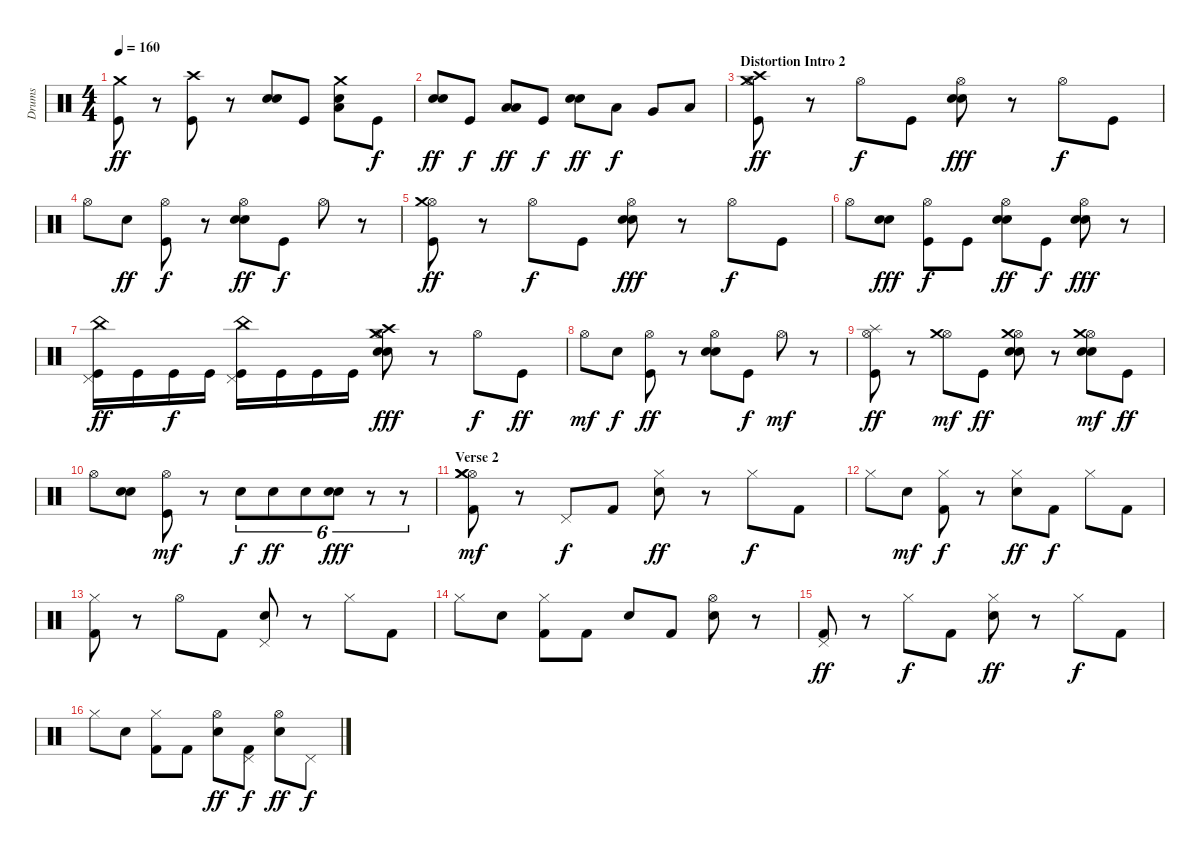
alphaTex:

\track ("Drums" "Drums") {instrument percussion}
\staff {score}
\articulation defaults
\ts (4 4)
\tempo 160
\clef neutral
\ks c
("Kick (hit)" "Crash medium (hit)").8{dy ff} r.8 ("Kick (hit)" "Crash high (hit)").8 r.8 ("Electric Snare (hit)" "Electric Snare (hit)").8 "Kick (hit)".8 ("Low Floor Tom (hit)" "Electric Snare (hit)" "Crash medium (hit)").8 "Kick (hit)".8{dy f} |
("Electric Snare (hit)" "Electric Snare (hit)").8{dy ff} "Kick (hit)".8{dy f} ("Low Floor Tom (hit)" "Low Floor Tom (hit)").8{dy ff} "Kick (hit)".8{dy f} ("Electric Snare (hit)" "Electric Snare (hit)").8{dy ff} "Low Tom (hit)".8{dy f} "Very Low Tom (hit)".8 "Low Floor Tom (hit)".8 |
\section ("" "Distortion Intro 2")
("Kick (hit)" "Hi-Hat (open)" "Crash high (hit)" "Crash medium (hit)").8{dy ff} r.8 "Hi-Hat (open)".8{dy f} "Kick (hit)".8 ("Electric Snare (hit)" "Electric Snare (hit)" "Hi-Hat (open)").8{dy fff} r.8 "Hi-Hat (open)".8{dy f} "Kick (hit)".8 |
"Hi-Hat (open)".8 "Electric Snare (hit)".8{dy ff} ("Kick (hit)" "Hi-Hat (open)").8{dy f} r.8 ("Electric Snare (hit)" "Electric Snare (hit)" "Hi-Hat (open)").8{dy ff} "Kick (hit)".8{dy f} "Hi-Hat (open)".8 r.8 |
("Kick (hit)" "Hi-Hat (open)" "Crash medium (hit)").8{dy ff} r.8 "Hi-Hat (open)".8{dy f} "Kick (hit)".8 ("Electric Snare (hit)" "Electric Snare (hit)" "Hi-Hat (open)").8{dy fff} r.8 "Hi-Hat (open)".8{dy f} "Kick (hit)".8 |
"Hi-Hat (open)".8 ("Electric Snare (hit)" "Electric Snare (hit)").8{dy fff} ("Kick (hit)" "Hi-Hat (open)").8{dy f} "Kick (hit)".8 ("Electric Snare (hit)" "Electric Snare (hit)" "Hi-Hat (open)").8{dy ff} "Kick (hit)".8{dy f} ("Electric Snare (hit)" "Electric Snare (hit)" "Hi-Hat (open)").8{dy fff} r.8 |
("Kick (hit)" "Pedal Hi-Hat (hit)" "China (hit)").16{dy ff} "Kick (hit)".16 "Kick (hit)".16{dy f} "Kick (hit)".16 ("Kick (hit)" "Pedal Hi-Hat (hit)" "China (hit)").16 "Kick (hit)".16 "Kick (hit)".16 "Kick (hit)".16 ("Electric Snare (hit)" "Electric Snare (hit)" "Hi-Hat (open)" "Crash high (hit)" "Crash medium (hit)").8{dy fff} r.8 "Hi-Hat (open)".8{dy f} "Kick (hit)".8{dy ff} |
"Hi-Hat (open)".8{dy mf} "Electric Snare (hit)".8{dy f} ("Kick (hit)" "Hi-Hat (open)").8{dy ff} r.8 ("Electric Snare (hit)" "Electric Snare (hit)" "Hi-Hat (open)").8 "Kick (hit)".8{dy f} "Hi-Hat (open)".8{dy mf} r.8 |
("Kick (hit)" "Hi-Hat (open)" "Splash (hit)").8{dy ff} r.8 ("Hi-Hat (open)" "Crash medium (hit)").8{dy mf} "Kick (hit)".8{dy ff} ("Electric Snare (hit)" "Electric Snare (hit)" "Hi-Hat (open)" "Crash medium (hit)").8 r.8 ("Electric Snare (hit)" "Electric Snare (hit)" "Hi-Hat (open)" "Crash medium (hit)").8{dy mf} "Kick (hit)".8{dy ff} |
"Hi-Hat (open)".8 ("Electric Snare (hit)" "Electric Snare (hit)").8 ("Kick (hit)" "Hi-Hat (open)").8{dy mf} r.8 "Electric Snare (hit)".8{tu (6 4) dy f} "Electric Snare (hit)".8{tu (6 4) dy ff} "Electric Snare (hit)".8{tu (6 4)} ("Electric Snare (hit)" "Electric Snare (hit)").8{tu (6 4) dy fff} r.8{tu (6 4)} r.8{tu (6 4)} |
\section ("" "Verse 2")
("Kick (hit) 2" "Hi-Hat (open)" "Crash medium (hit)" "Crash medium (hit)").8{dy mf} r.8 "Pedal Hi-Hat (hit)".8{dy f} "Kick (hit) 2".8 ("Electric Snare (hit)" "Hi-Hat (closed)").8{dy ff} r.8 "Hi-Hat (closed)".8{dy f} "Kick (hit) 2".8 |
"Hi-Hat (closed)".8 "Electric Snare (hit)".8{dy mf} ("Kick (hit) 2" "Hi-Hat (closed)").8{dy f} r.8 ("Electric Snare (hit)" "Hi-Hat (closed)").8{dy ff} "Kick (hit) 2".8{dy f} "Hi-Hat (closed)".8 "Kick (hit) 2".8 |
("Kick (hit) 2" "Hi-Hat (closed)").8 r.8 "Hi-Hat (open)".8 "Kick (hit) 2".8 ("Electric Snare (hit)" "Pedal Hi-Hat (hit)").8 r.8 "Hi-Hat (closed)".8 "Kick (hit) 2".8 |
"Hi-Hat (closed)".8 "Electric Snare (hit)".8 ("Kick (hit) 2" "Hi-Hat (closed)").8 "Kick (hit) 2".8 "Electric Snare (hit)".8 "Kick (hit) 2".8 ("Electric Snare (hit)" "Hi-Hat (open)").8 r.8 |
("Kick (hit) 2" "Pedal Hi-Hat (hit)").8{dy ff} r.8 "Hi-Hat (closed)".8{dy f} "Kick (hit) 2".8 ("Electric Snare (hit)" "Hi-Hat (closed)").8{dy ff} r.8 "Hi-Hat (closed)".8{dy f} "Kick (hit) 2".8 |
"Hi-Hat (closed)".8 "Electric Snare (hit)".8 ("Kick (hit) 2" "Hi-Hat (closed)").8 "Kick (hit) 2".8 ("Electric Snare (hit)" "Hi-Hat (open)").8{dy ff} ("Kick (hit) 2" "Pedal Hi-Hat (hit)").8{dy f} ("Electric Snare (hit)" "Hi-Hat (open)").8{dy ff} "Pedal Hi-Hat (hit)".8{dy f}
